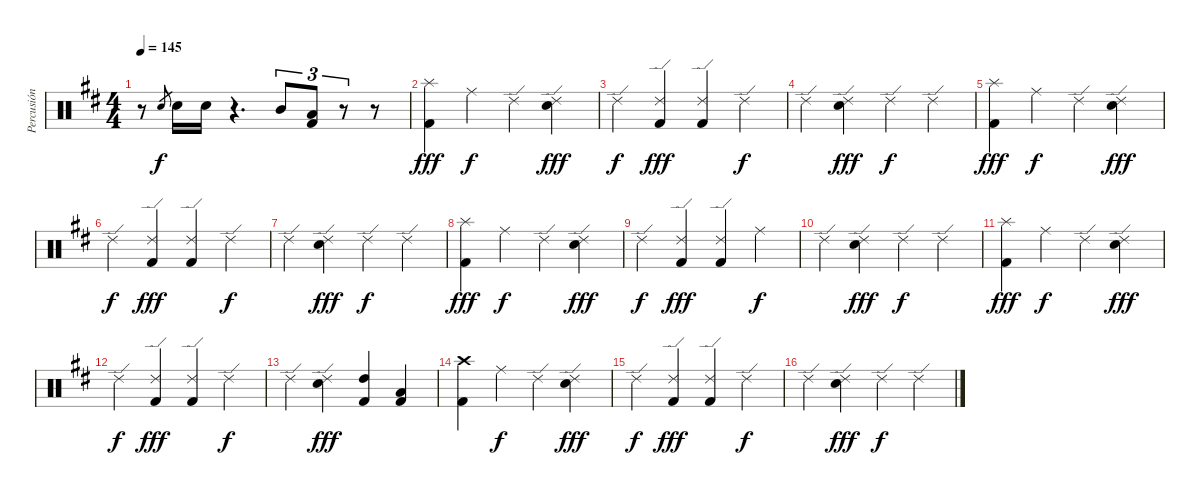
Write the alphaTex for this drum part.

\track ("Percusión" "Percusión") {instrument percussion}
\staff {score}
\articulation defaults
\ts (4 4)
\tempo 145
\clef neutral
\ks d
r.8{dy fff} "Electric Snare (hit)".8{gr dy f} "Electric Snare (hit)".16 "Electric Snare (hit)".16 r.4{d} "Mid Tom (hit)".8{tu (3 2)} ("Low Tom (hit)" "Kick (hit) 2").8{tu (3 2)} r.8{tu (3 2)} r.8 |
("Splash (hit)" "Kick (hit) 2").4{dy fff} "Ride (middle)".4{dy f} "Ride (edge) 2".4 ("Ride (edge) 2" "Electric Snare (hit)").4{dy fff} |
"Ride (edge) 2".4{dy f} ("Ride (edge) 2" "Kick (hit) 2").4{dy fff} ("Ride (edge) 2" "Kick (hit) 2").4 "Ride (edge) 2".4{dy f} |
"Ride (edge) 2".4 ("Ride (edge) 2" "Electric Snare (hit)").4{dy fff} "Ride (edge) 2".4{dy f} "Ride (edge) 2".4 |
("Splash (hit)" "Kick (hit) 2").4{dy fff} "Ride (middle)".4{dy f} "Ride (edge) 2".4 ("Ride (edge) 2" "Electric Snare (hit)").4{dy fff} |
"Ride (edge) 2".4{dy f} ("Ride (edge) 2" "Kick (hit) 2").4{dy fff} ("Ride (edge) 2" "Kick (hit) 2").4 "Ride (edge) 2".4{dy f} |
"Ride (edge) 2".4 ("Ride (edge) 2" "Electric Snare (hit)").4{dy fff} "Ride (edge) 2".4{dy f} "Ride (edge) 2".4 |
("Splash (hit)" "Kick (hit) 2").4{dy fff} "Ride (middle)".4{dy f} "Ride (edge) 2".4 ("Ride (edge) 2" "Electric Snare (hit)").4{dy fff} |
"Ride (edge) 2".4{dy f} ("Ride (edge) 2" "Kick (hit) 2").4{dy fff} ("Ride (edge) 2" "Kick (hit) 2").4 "Ride (middle)".4{dy f} |
"Ride (edge) 2".4 ("Ride (edge) 2" "Electric Snare (hit)").4{dy fff} "Ride (edge) 2".4{dy f} "Ride (edge) 2".4 |
("Splash (hit)" "Kick (hit) 2").4{dy fff} "Ride (middle)".4{dy f} "Ride (edge) 2".4 ("Ride (edge) 2" "Electric Snare (hit)").4{dy fff} |
"Ride (edge) 2".4{dy f} ("Ride (edge) 2" "Kick (hit) 2").4{dy fff} ("Ride (edge) 2" "Kick (hit) 2").4 "Ride (edge) 2".4{dy f} |
"Ride (edge) 2".4 ("Ride (edge) 2" "Electric Snare (hit)").4{dy fff} ("High Tom (hit)" "Kick (hit) 2").4 ("Low Tom (hit)" "Kick (hit) 2").4 |
("Crash high (hit)" "Kick (hit) 2").4 "Ride (middle)".4{dy f} "Ride (edge) 2".4 ("Ride (edge) 2" "Electric Snare (hit)").4{dy fff} |
"Ride (edge) 2".4{dy f} ("Ride (edge) 2" "Kick (hit) 2").4{dy fff} ("Ride (edge) 2" "Kick (hit) 2").4 "Ride (edge) 2".4{dy f} |
"Ride (edge) 2".4 ("Ride (edge) 2" "Electric Snare (hit)").4{dy fff} "Ride (edge) 2".4{dy f} "Ride (edge) 2".4
